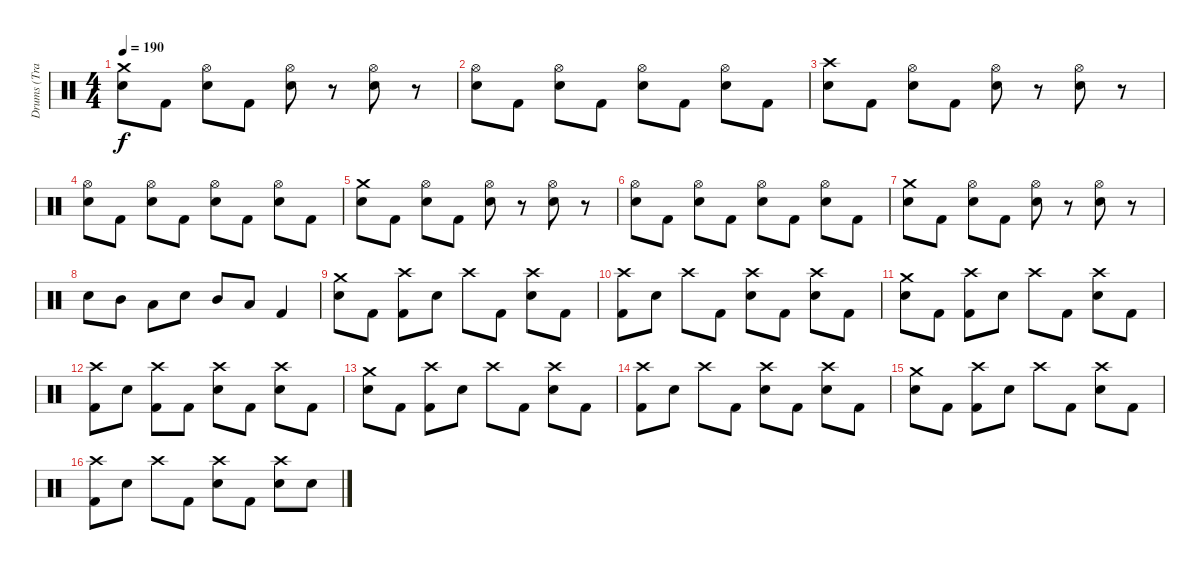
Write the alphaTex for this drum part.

\track ("Drums (Travis)" "Drums (Tra") {instrument percussion}
\staff {score}
\articulation defaults
\ts (4 4)
\tempo 190
\clef neutral
\ks c
("Crash medium (hit)" "Electric Snare (hit)").8{dy f} "Kick (hit) 2".8 ("Hi-Hat (open)" "Electric Snare (hit)").8 "Kick (hit) 2".8 ("Hi-Hat (open)" "Electric Snare (hit)").8 r.8 ("Hi-Hat (open)" "Electric Snare (hit)").8 r.8 |
("Hi-Hat (open)" "Electric Snare (hit)").8 "Kick (hit) 2".8 ("Hi-Hat (open)" "Electric Snare (hit)").8 "Kick (hit) 2".8 ("Hi-Hat (open)" "Electric Snare (hit)").8 "Kick (hit) 2".8 ("Hi-Hat (open)" "Electric Snare (hit)").8 "Kick (hit) 2".8 |
("Crash high (hit)" "Electric Snare (hit)").8 "Kick (hit) 2".8 ("Hi-Hat (open)" "Electric Snare (hit)").8 "Kick (hit) 2".8 ("Hi-Hat (open)" "Electric Snare (hit)").8 r.8 ("Hi-Hat (open)" "Electric Snare (hit)").8 r.8 |
("Hi-Hat (open)" "Electric Snare (hit)").8 "Kick (hit) 2".8 ("Hi-Hat (open)" "Electric Snare (hit)").8 "Kick (hit) 2".8 ("Hi-Hat (open)" "Electric Snare (hit)").8 "Kick (hit) 2".8 ("Hi-Hat (open)" "Electric Snare (hit)").8 "Kick (hit) 2".8 |
("Crash medium (hit)" "Electric Snare (hit)").8 "Kick (hit) 2".8 ("Hi-Hat (open)" "Electric Snare (hit)").8 "Kick (hit) 2".8 ("Hi-Hat (open)" "Electric Snare (hit)").8 r.8 ("Hi-Hat (open)" "Electric Snare (hit)").8 r.8 |
("Hi-Hat (open)" "Electric Snare (hit)").8 "Kick (hit) 2".8 ("Hi-Hat (open)" "Electric Snare (hit)").8 "Kick (hit) 2".8 ("Hi-Hat (open)" "Electric Snare (hit)").8 "Kick (hit) 2".8 ("Hi-Hat (open)" "Electric Snare (hit)").8 "Kick (hit) 2".8 |
("Crash medium (hit)" "Electric Snare (hit)").8 "Kick (hit) 2".8 ("Hi-Hat (open)" "Electric Snare (hit)").8 "Kick (hit) 2".8 ("Hi-Hat (open)" "Electric Snare (hit)").8 r.8 ("Hi-Hat (open)" "Electric Snare (hit)").8 r.8 |
"Electric Snare (hit)".8 "Mid Tom (hit)".8 "Low Tom (hit)".8 "Electric Snare (hit)".8 "Mid Tom (hit)".8 "Low Tom (hit)".8 "Kick (hit) 2".4 |
("Crash medium (hit)" "Electric Snare (hit)").8 "Kick (hit) 2".8 ("Crash high (hit)" "Kick (hit) 2").8 "Electric Snare (hit)".8 "Crash high (hit)".8 "Kick (hit) 2".8 ("Crash high (hit)" "Electric Snare (hit)").8 "Kick (hit) 2".8 |
("Crash high (hit)" "Kick (hit) 2").8 "Electric Snare (hit)".8 "Crash high (hit)".8 "Kick (hit) 2".8 ("Crash high (hit)" "Electric Snare (hit)").8 "Kick (hit) 2".8 ("Crash high (hit)" "Electric Snare (hit)").8 "Kick (hit) 2".8 |
("Crash medium (hit)" "Electric Snare (hit)").8 "Kick (hit) 2".8 ("Crash high (hit)" "Kick (hit) 2").8 "Electric Snare (hit)".8 "Crash high (hit)".8 "Kick (hit) 2".8 ("Crash high (hit)" "Electric Snare (hit)").8 "Kick (hit) 2".8 |
("Crash high (hit)" "Kick (hit) 2").8 "Electric Snare (hit)".8 ("Crash high (hit)" "Kick (hit) 2").8 "Kick (hit) 2".8 ("Crash high (hit)" "Electric Snare (hit)").8 "Kick (hit) 2".8 ("Crash high (hit)" "Electric Snare (hit)").8 "Kick (hit) 2".8 |
("Crash medium (hit)" "Electric Snare (hit)").8 "Kick (hit) 2".8 ("Crash high (hit)" "Kick (hit) 2").8 "Electric Snare (hit)".8 "Crash high (hit)".8 "Kick (hit) 2".8 ("Crash high (hit)" "Electric Snare (hit)").8 "Kick (hit) 2".8 |
("Crash high (hit)" "Kick (hit) 2").8 "Electric Snare (hit)".8 "Crash high (hit)".8 "Kick (hit) 2".8 ("Crash high (hit)" "Electric Snare (hit)").8 "Kick (hit) 2".8 ("Crash high (hit)" "Electric Snare (hit)").8 "Kick (hit) 2".8 |
("Crash medium (hit)" "Electric Snare (hit)").8 "Kick (hit) 2".8 ("Crash high (hit)" "Kick (hit) 2").8 "Electric Snare (hit)".8 "Crash high (hit)".8 "Kick (hit) 2".8 ("Crash high (hit)" "Electric Snare (hit)").8 "Kick (hit) 2".8 |
("Crash high (hit)" "Kick (hit) 2").8 "Electric Snare (hit)".8 "Crash high (hit)".8 "Kick (hit) 2".8 ("Crash high (hit)" "Electric Snare (hit)").8 "Kick (hit) 2".8 ("Crash high (hit)" "Electric Snare (hit)").8 "Electric Snare (hit)".8
